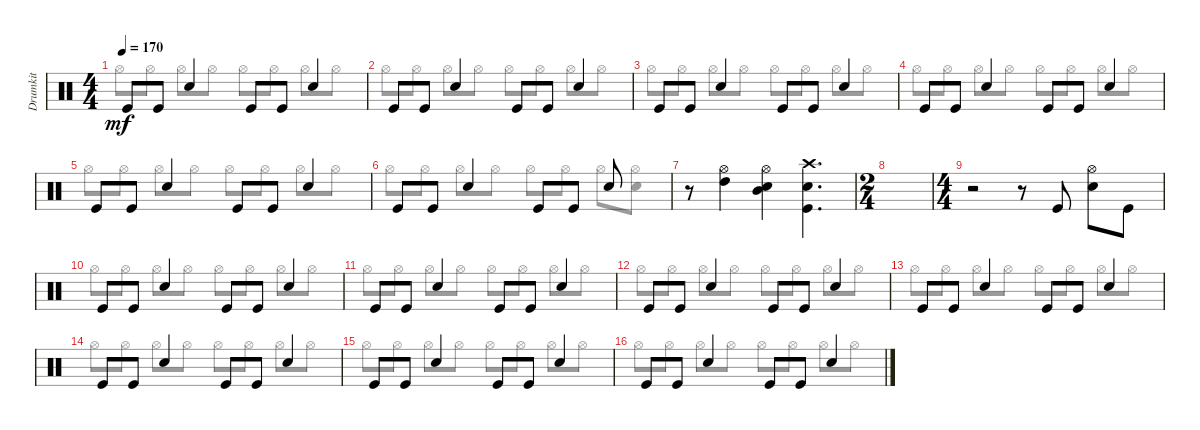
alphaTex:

\track ("Drumkit" "Drumkit") {instrument percussion}
\staff {score}
\articulation defaults
\voice
\ts (4 4)
\tempo 170
\clef neutral
\ks c "Kick (hit)".8{dy mf} "Kick (hit)".8 "Snare (hit) 2".4 "Kick (hit)".8 "Kick (hit)".8 "Snare (hit) 2".4
|
"Kick (hit)".8 "Kick (hit)".8 "Snare (hit) 2".4 "Kick (hit)".8 "Kick (hit)".8 "Snare (hit) 2".4 |
"Kick (hit)".8 "Kick (hit)".8 "Snare (hit) 2".4 "Kick (hit)".8 "Kick (hit)".8 "Snare (hit) 2".4 |
"Kick (hit)".8 "Kick (hit)".8 "Snare (hit) 2".4 "Kick (hit)".8 "Kick (hit)".8 "Snare (hit) 2".4 |
"Kick (hit)".8 "Kick (hit)".8 "Snare (hit) 2".4 "Kick (hit)".8 "Kick (hit)".8 "Snare (hit) 2".4 |
"Kick (hit)".8 "Kick (hit)".8 "Snare (hit) 2".4 "Kick (hit)".8 "Kick (hit)".8 "Snare (hit) 2".8 |
r.8 ("High Tom (hit)" "Hi-Hat (open)").4 ("Mid Tom (hit)" "Snare (hit) 2" "Hi-Hat (open)").4 ("Kick (hit)" "Snare (hit) 2" "Crash high (hit)").4{d} |
\ts (2 4)
|
\ts (4 4)
r.2 r.8 "Kick (hit)".8 ("Snare (hit) 2" "Hi-Hat (open)").8 "Kick (hit)".8 |
"Kick (hit)".8 "Kick (hit)".8 "Snare (hit) 2".4 "Kick (hit)".8 "Kick (hit)".8 "Snare (hit) 2".4 |
"Kick (hit)".8 "Kick (hit)".8 "Snare (hit) 2".4 "Kick (hit)".8 "Kick (hit)".8 "Snare (hit) 2".4 |
"Kick (hit)".8 "Kick (hit)".8 "Snare (hit) 2".4 "Kick (hit)".8 "Kick (hit)".8 "Snare (hit) 2".4 |
"Kick (hit)".8 "Kick (hit)".8 "Snare (hit) 2".4 "Kick (hit)".8 "Kick (hit)".8 "Snare (hit) 2".4 |
"Kick (hit)".8 "Kick (hit)".8 "Snare (hit) 2".4 "Kick (hit)".8 "Kick (hit)".8 "Snare (hit) 2".4 |
"Kick (hit)".8 "Kick (hit)".8 "Snare (hit) 2".4 "Kick (hit)".8 "Kick (hit)".8 "Snare (hit) 2".4 |
"Kick (hit)".8 "Kick (hit)".8 "Snare (hit) 2".4 "Kick (hit)".8 "Kick (hit)".8 "Snare (hit) 2".4
\voice
\clef neutral
\ottava regular
\simile none
\ks c "Hi-Hat (open)".8{dy mf} "Hi-Hat (open)".8 "Hi-Hat (open)".8 "Hi-Hat (open)".8 "Hi-Hat (open)".8 "Hi-Hat (open)".8 "Hi-Hat (open)".8 "Hi-Hat (open)".8
|
"Hi-Hat (open)".8 "Hi-Hat (open)".8 "Hi-Hat (open)".8 "Hi-Hat (open)".8 "Hi-Hat (open)".8 "Hi-Hat (open)".8 "Hi-Hat (open)".8 "Hi-Hat (open)".8 |
"Hi-Hat (open)".8 "Hi-Hat (open)".8 "Hi-Hat (open)".8 "Hi-Hat (open)".8 "Hi-Hat (open)".8 "Hi-Hat (open)".8 "Hi-Hat (open)".8 "Hi-Hat (open)".8 |
"Hi-Hat (open)".8 "Hi-Hat (open)".8 "Hi-Hat (open)".8 "Hi-Hat (open)".8 "Hi-Hat (open)".8 "Hi-Hat (open)".8 "Hi-Hat (open)".8 "Hi-Hat (open)".8 |
"Hi-Hat (open)".8 "Hi-Hat (open)".8 "Hi-Hat (open)".8 "Hi-Hat (open)".8 "Hi-Hat (open)".8 "Hi-Hat (open)".8 "Hi-Hat (open)".8 "Hi-Hat (open)".8 |
"Hi-Hat (open)".8 "Hi-Hat (open)".8 "Hi-Hat (open)".8 "Hi-Hat (open)".8 "Hi-Hat (open)".8 "Hi-Hat (open)".8 "Hi-Hat (open)".8 ("Hi-Hat (open)" "Snare (hit) 2").8 |
|
|
|
"Hi-Hat (open)".8 "Hi-Hat (open)".8 "Hi-Hat (open)".8 "Hi-Hat (open)".8 "Hi-Hat (open)".8 "Hi-Hat (open)".8 "Hi-Hat (open)".8 "Hi-Hat (open)".8 |
"Hi-Hat (open)".8 "Hi-Hat (open)".8 "Hi-Hat (open)".8 "Hi-Hat (open)".8 "Hi-Hat (open)".8 "Hi-Hat (open)".8 "Hi-Hat (open)".8 "Hi-Hat (open)".8 |
"Hi-Hat (open)".8 "Hi-Hat (open)".8 "Hi-Hat (open)".8 "Hi-Hat (open)".8 "Hi-Hat (open)".8 "Hi-Hat (open)".8 "Hi-Hat (open)".8 "Hi-Hat (open)".8 |
"Hi-Hat (open)".8 "Hi-Hat (open)".8 "Hi-Hat (open)".8 "Hi-Hat (open)".8 "Hi-Hat (open)".8 "Hi-Hat (open)".8 "Hi-Hat (open)".8 "Hi-Hat (open)".8 |
"Hi-Hat (open)".8 "Hi-Hat (open)".8 "Hi-Hat (open)".8 "Hi-Hat (open)".8 "Hi-Hat (open)".8 "Hi-Hat (open)".8 "Hi-Hat (open)".8 "Hi-Hat (open)".8 |
"Hi-Hat (open)".8 "Hi-Hat (open)".8 "Hi-Hat (open)".8 "Hi-Hat (open)".8 "Hi-Hat (open)".8 "Hi-Hat (open)".8 "Hi-Hat (open)".8 "Hi-Hat (open)".8 |
"Hi-Hat (open)".8 "Hi-Hat (open)".8 "Hi-Hat (open)".8 "Hi-Hat (open)".8 "Hi-Hat (open)".8 "Hi-Hat (open)".8 "Hi-Hat (open)".8 "Hi-Hat (open)".8
